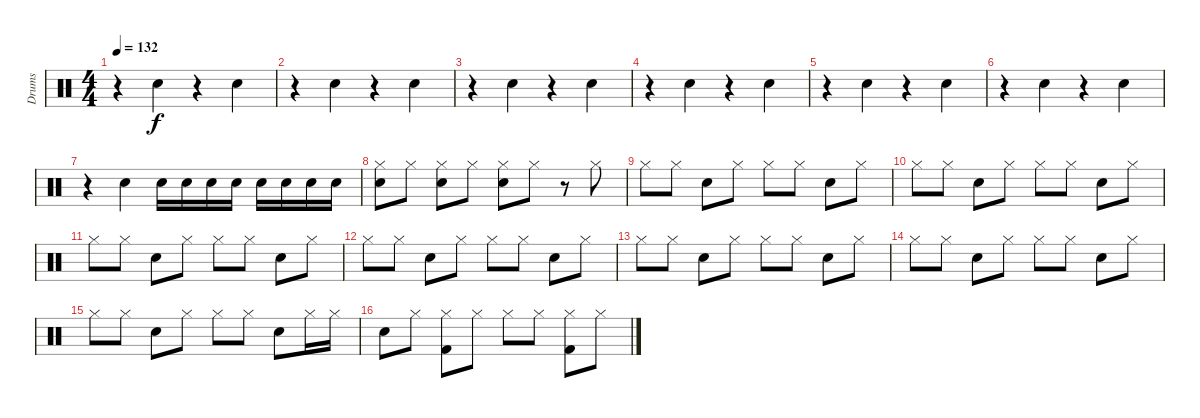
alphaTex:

\track ("Drums" "Drums") {instrument percussion}
\staff {score}
\articulation defaults
\ts (4 4)
\tempo 132
\clef neutral
\ks c
r.4{dy f} "Electric Snare (hit)".4 r.4 "Electric Snare (hit)".4 |
r.4 "Electric Snare (hit)".4 r.4 "Electric Snare (hit)".4 |
r.4 "Electric Snare (hit)".4 r.4 "Electric Snare (hit)".4 |
r.4 "Electric Snare (hit)".4 r.4 "Electric Snare (hit)".4 |
r.4 "Electric Snare (hit)".4 r.4 "Electric Snare (hit)".4 |
r.4 "Electric Snare (hit)".4 r.4 "Electric Snare (hit)".4 |
r.4 "Electric Snare (hit)".4 "Electric Snare (hit)".16 "Electric Snare (hit)".16 "Electric Snare (hit)".16 "Electric Snare (hit)".16 "Electric Snare (hit)".16 "Electric Snare (hit)".16 "Electric Snare (hit)".16 "Electric Snare (hit)".16 |
("Hi-Hat (closed)" "Electric Snare (hit)").8 "Hi-Hat (closed)".8 ("Hi-Hat (closed)" "Electric Snare (hit)").8 "Hi-Hat (closed)".8 ("Hi-Hat (closed)" "Electric Snare (hit)").8 "Hi-Hat (closed)".8 r.8 "Hi-Hat (closed)".8 |
"Hi-Hat (closed)".8 "Hi-Hat (closed)".8 "Electric Snare (hit)".8 "Hi-Hat (closed)".8 "Hi-Hat (closed)".8 "Hi-Hat (closed)".8 "Electric Snare (hit)".8 "Hi-Hat (closed)".8 |
"Hi-Hat (closed)".8 "Hi-Hat (closed)".8 "Electric Snare (hit)".8 "Hi-Hat (closed)".8 "Hi-Hat (closed)".8 "Hi-Hat (closed)".8 "Electric Snare (hit)".8 "Hi-Hat (closed)".8 |
"Hi-Hat (closed)".8 "Hi-Hat (closed)".8 "Electric Snare (hit)".8 "Hi-Hat (closed)".8 "Hi-Hat (closed)".8 "Hi-Hat (closed)".8 "Electric Snare (hit)".8 "Hi-Hat (closed)".8 |
"Hi-Hat (closed)".8 "Hi-Hat (closed)".8 "Electric Snare (hit)".8 "Hi-Hat (closed)".8 "Hi-Hat (closed)".8 "Hi-Hat (closed)".8 "Electric Snare (hit)".8 "Hi-Hat (closed)".8 |
"Hi-Hat (closed)".8 "Hi-Hat (closed)".8 "Electric Snare (hit)".8 "Hi-Hat (closed)".8 "Hi-Hat (closed)".8 "Hi-Hat (closed)".8 "Electric Snare (hit)".8 "Hi-Hat (closed)".8 |
"Hi-Hat (closed)".8 "Hi-Hat (closed)".8 "Electric Snare (hit)".8 "Hi-Hat (closed)".8 "Hi-Hat (closed)".8 "Hi-Hat (closed)".8 "Electric Snare (hit)".8 "Hi-Hat (closed)".8 |
"Hi-Hat (closed)".8 "Hi-Hat (closed)".8 "Electric Snare (hit)".8 "Hi-Hat (closed)".8 "Hi-Hat (closed)".8 "Hi-Hat (closed)".8 "Electric Snare (hit)".8 "Hi-Hat (closed)".16 "Hi-Hat (closed)".16 |
"Electric Snare (hit)".8 "Hi-Hat (closed)".8 ("Kick (hit) 2" "Hi-Hat (closed)").8 "Hi-Hat (closed)".8 "Hi-Hat (closed)".8 "Hi-Hat (closed)".8 ("Kick (hit) 2" "Hi-Hat (closed)").8 "Hi-Hat (closed)".8
